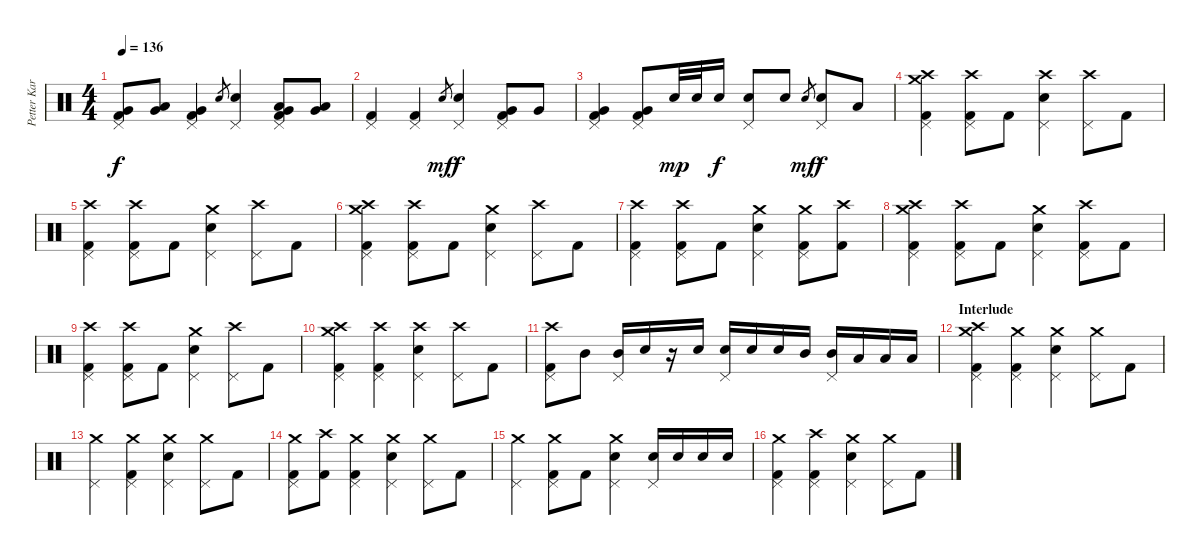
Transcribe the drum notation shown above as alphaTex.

\track ("Petter Karlsson" "Petter Kar") {instrument percussion}
\staff {score}
\articulation defaults
\ts (4 4)
\tempo 136
\clef neutral
\ks c
("Very Low Tom (hit)" "Pedal Hi-Hat (hit)" "Kick (hit) 2").8{dy f} ("Low Tom (hit)" "Very Low Tom (hit)").8 ("Very Low Tom (hit)" "Pedal Hi-Hat (hit)" "Kick (hit) 2").4 "Snare (hit) 2".8{gr} ("Snare (hit) 2" "Pedal Hi-Hat (hit)").4 ("Low Tom (hit)" "Very Low Tom (hit)" "Pedal Hi-Hat (hit)" "Kick (hit) 2").8 ("Low Tom (hit)" "Very Low Tom (hit)").8 |
("Pedal Hi-Hat (hit)" "Kick (hit) 2").4 ("Pedal Hi-Hat (hit)" "Kick (hit) 2").4 "Snare (hit) 2".8{gr dy mf} ("Snare (hit) 2" "Pedal Hi-Hat (hit)").4{dy f} ("Very Low Tom (hit)" "Pedal Hi-Hat (hit)" "Kick (hit) 2").8 "Very Low Tom (hit)".8 |
("Very Low Tom (hit)" "Pedal Hi-Hat (hit)" "Kick (hit) 2").4 ("Very Low Tom (hit)" "Pedal Hi-Hat (hit)" "Kick (hit) 2").8 "Snare (hit) 2".32{dy mp} "Snare (hit) 2".32 "Snare (hit) 2".16{dy f} ("Snare (hit) 2" "Pedal Hi-Hat (hit)").8 "Snare (hit) 2".8 "Snare (hit) 2".8{gr dy mf} ("Snare (hit) 2" "Pedal Hi-Hat (hit)").8{dy f} "Low Tom (hit)".8 |
("Crash high (hit)" "Crash medium (hit)" "Pedal Hi-Hat (hit)" "Kick (hit) 2").4 ("Crash high (hit)" "Pedal Hi-Hat (hit)" "Kick (hit) 2").8 "Kick (hit) 2".8 ("Crash high (hit)" "Snare (hit) 2" "Pedal Hi-Hat (hit)").4 ("Crash high (hit)" "Pedal Hi-Hat (hit)").8 "Kick (hit) 2".8 |
("Crash high (hit)" "Pedal Hi-Hat (hit)" "Kick (hit) 2").4 ("Crash high (hit)" "Pedal Hi-Hat (hit)" "Kick (hit) 2").8 "Kick (hit) 2".8 ("Crash medium (hit)" "Snare (hit) 2" "Pedal Hi-Hat (hit)").4 ("Crash high (hit)" "Pedal Hi-Hat (hit)").8 "Kick (hit) 2".8 |
("Crash high (hit)" "Crash medium (hit)" "Pedal Hi-Hat (hit)" "Kick (hit) 2").4 ("Crash high (hit)" "Pedal Hi-Hat (hit)" "Kick (hit) 2").8 "Kick (hit) 2".8 ("Crash medium (hit)" "Snare (hit) 2" "Pedal Hi-Hat (hit)").4 ("Crash high (hit)" "Pedal Hi-Hat (hit)").8 "Kick (hit) 2".8 |
("Crash high (hit)" "Pedal Hi-Hat (hit)" "Kick (hit) 2").4 ("Crash high (hit)" "Pedal Hi-Hat (hit)" "Kick (hit) 2").8 "Kick (hit) 2".8 ("Crash medium (hit)" "Snare (hit) 2" "Pedal Hi-Hat (hit)").4 ("Crash medium (hit)" "Pedal Hi-Hat (hit)" "Kick (hit) 2").8 ("Crash high (hit)" "Kick (hit) 2").8 |
("Crash high (hit)" "Crash medium (hit)" "Pedal Hi-Hat (hit)" "Kick (hit) 2").4 ("Crash high (hit)" "Pedal Hi-Hat (hit)" "Kick (hit) 2").8 "Kick (hit) 2".8 ("Crash medium (hit)" "Snare (hit) 2" "Pedal Hi-Hat (hit)").4 ("Crash high (hit)" "Pedal Hi-Hat (hit)" "Kick (hit) 2").8 "Kick (hit) 2".8 |
("Crash high (hit)" "Pedal Hi-Hat (hit)" "Kick (hit) 2").4 ("Crash high (hit)" "Pedal Hi-Hat (hit)" "Kick (hit) 2").8 "Kick (hit) 2".8 ("Crash medium (hit)" "Snare (hit) 2" "Pedal Hi-Hat (hit)").4 ("Crash high (hit)" "Pedal Hi-Hat (hit)").8 "Kick (hit) 2".8 |
("Crash high (hit)" "Crash medium (hit)" "Pedal Hi-Hat (hit)" "Kick (hit) 2").4 ("Crash high (hit)" "Pedal Hi-Hat (hit)" "Kick (hit) 2").4 ("Crash high (hit)" "Snare (hit) 2" "Pedal Hi-Hat (hit)").4 ("Crash high (hit)" "Pedal Hi-Hat (hit)").8 "Kick (hit) 2".8 |
("Crash high (hit)" "Pedal Hi-Hat (hit)" "Kick (hit) 2").8 "Mid Tom (hit)".8 ("Mid Tom (hit)" "Pedal Hi-Hat (hit)").16 "Snare (hit) 2".16 r.16 "Snare (hit) 2".16 ("Snare (hit) 2" "Pedal Hi-Hat (hit)").16 "Snare (hit) 2".16 "Snare (hit) 2".16 "Mid Tom (hit)".16 ("Mid Tom (hit)" "Pedal Hi-Hat (hit)").16 "Low Tom (hit)".16 "Low Tom (hit)".16 "Low Tom (hit)".16 |
\section ("" "Interlude")
("Crash high (hit)" "Crash medium (hit)" "Pedal Hi-Hat (hit)" "Kick (hit) 2").4 ("Crash medium (hit)" "Pedal Hi-Hat (hit)" "Kick (hit) 2").4 ("Crash medium (hit)" "Snare (hit) 2" "Pedal Hi-Hat (hit)").4 ("Crash medium (hit)" "Pedal Hi-Hat (hit)").8 "Kick (hit) 2".8 |
("Crash medium (hit)" "Pedal Hi-Hat (hit)").4 ("Crash medium (hit)" "Pedal Hi-Hat (hit)" "Kick (hit) 2").4 ("Crash medium (hit)" "Snare (hit) 2" "Pedal Hi-Hat (hit)").4 ("Crash medium (hit)" "Pedal Hi-Hat (hit)").8 "Kick (hit) 2".8 |
("Crash medium (hit)" "Pedal Hi-Hat (hit)" "Kick (hit) 2").8 ("Crash high (hit)" "Kick (hit) 2").8 ("Crash medium (hit)" "Pedal Hi-Hat (hit)" "Kick (hit) 2").4 ("Crash medium (hit)" "Snare (hit) 2" "Pedal Hi-Hat (hit)").4 ("Crash medium (hit)" "Pedal Hi-Hat (hit)").8 "Kick (hit) 2".8 |
("Crash medium (hit)" "Pedal Hi-Hat (hit)").4 ("Crash medium (hit)" "Pedal Hi-Hat (hit)" "Kick (hit) 2").8 "Kick (hit) 2".8 ("Crash medium (hit)" "Snare (hit) 2" "Pedal Hi-Hat (hit)").4 ("Snare (hit) 2" "Pedal Hi-Hat (hit)").16 "Snare (hit) 2".16 "Snare (hit) 2".16 "Snare (hit) 2".16 |
("Crash medium (hit)" "Pedal Hi-Hat (hit)" "Kick (hit) 2").4 ("Crash high (hit)" "Pedal Hi-Hat (hit)" "Kick (hit) 2").4 ("Crash medium (hit)" "Snare (hit) 2" "Pedal Hi-Hat (hit)").4 ("Crash medium (hit)" "Pedal Hi-Hat (hit)").8 "Kick (hit) 2".8
